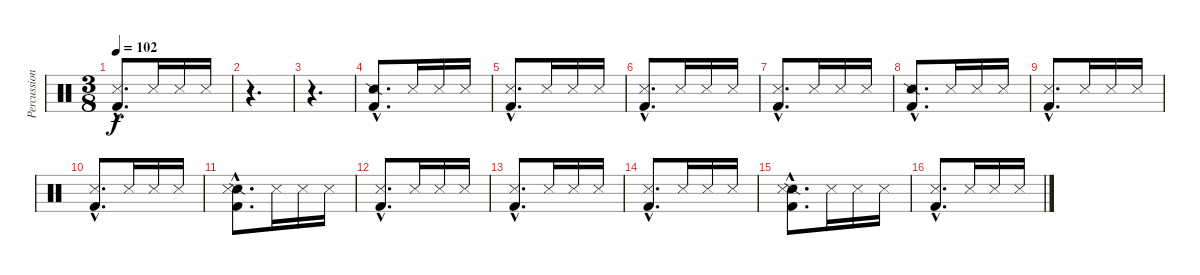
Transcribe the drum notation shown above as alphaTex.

\track ("Percussions" "Percussion") {instrument percussion}
\staff {score}
\articulation defaults
\ts (3 8)
\tempo 102
\clef neutral
\ks c
("Snare (side stick) 3"{hac} "Kick (hit) 2"{hac}).8{d dy f} "Snare (side stick) 3".16 "Snare (side stick) 3".16 "Snare (side stick) 3".16 |
r.4{d} |
r.4{d} |
("Snare (side stick) 2"{hac} "Kick (hit) 2"{hac}).8{d} "Snare (side stick) 3".16 "Snare (side stick) 3".16 "Snare (side stick) 3".16 |
("Snare (side stick) 3"{hac} "Kick (hit) 2"{hac}).8{d} "Snare (side stick) 3".16 "Snare (side stick) 3".16 "Snare (side stick) 3".16 |
("Snare (side stick) 3"{hac} "Kick (hit) 2"{hac}).8{d} "Snare (side stick) 3".16 "Snare (side stick) 3".16 "Snare (side stick) 3".16 |
("Snare (side stick) 3"{hac} "Kick (hit) 2"{hac}).8{d} "Snare (side stick) 3".16 "Snare (side stick) 3".16 "Snare (side stick) 3".16 |
("Snare (side stick) 2"{hac} "Kick (hit) 2"{hac}).8{d} "Snare (side stick) 3".16 "Snare (side stick) 3".16 "Snare (side stick) 3".16 |
("Snare (side stick) 3"{hac} "Kick (hit) 2"{hac}).8{d} "Snare (side stick) 3".16 "Snare (side stick) 3".16 "Snare (side stick) 3".16 |
("Snare (side stick) 3"{hac} "Kick (hit) 2"{hac}).8{d} "Snare (side stick) 3".16 "Snare (side stick) 3".16 "Snare (side stick) 3".16 |
("Snare (side stick) 2"{hac} "Snare (side stick) 3"{hac} "Kick (hit) 2"{hac}).8{d} "Snare (side stick) 3".16 "Snare (side stick) 3".16 "Snare (side stick) 3".16 |
("Snare (side stick) 3"{hac} "Kick (hit) 2"{hac}).8{d} "Snare (side stick) 3".16 "Snare (side stick) 3".16 "Snare (side stick) 3".16 |
("Snare (side stick) 3"{hac} "Kick (hit) 2"{hac}).8{d} "Snare (side stick) 3".16 "Snare (side stick) 3".16 "Snare (side stick) 3".16 |
("Snare (side stick) 3"{hac} "Kick (hit) 2"{hac}).8{d} "Snare (side stick) 3".16 "Snare (side stick) 3".16 "Snare (side stick) 3".16 |
("Snare (side stick) 2"{hac} "Snare (side stick) 3"{hac} "Kick (hit) 2"{hac}).8{d} "Snare (side stick) 3".16 "Snare (side stick) 3".16 "Snare (side stick) 3".16 |
("Snare (side stick) 3"{hac} "Kick (hit) 2"{hac}).8{d} "Snare (side stick) 3".16 "Snare (side stick) 3".16 "Snare (side stick) 3".16
